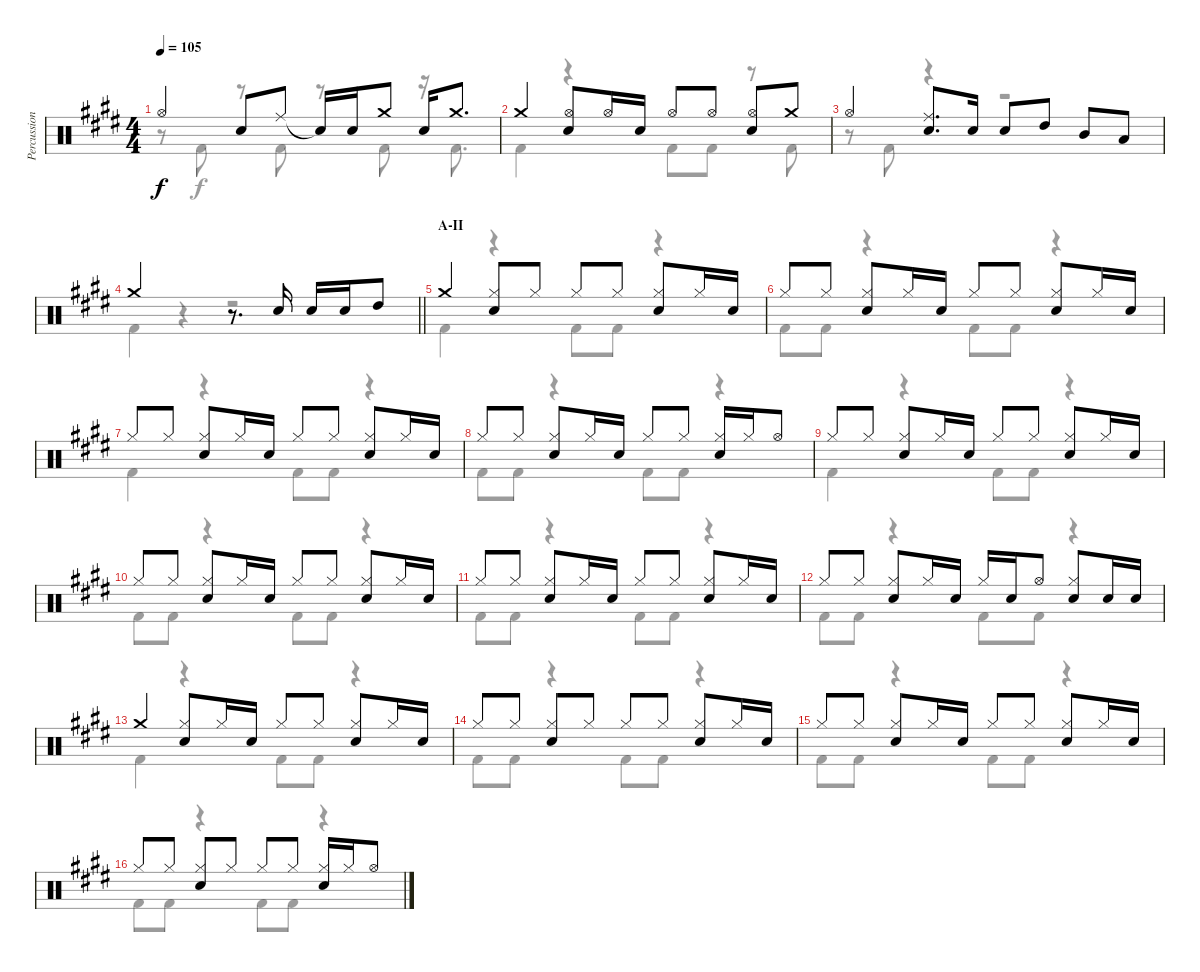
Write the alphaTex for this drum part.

\track ("Percussion" "Percussion") {instrument percussion}
\staff {score}
\articulation defaults
\voice
\ts (4 4)
\tempo 105
\clef neutral
\ks e "Hi-Hat (open)".4{dy f} "Snare (hit) 2".8 "Ride (middle)".8 "Snare (hit)"{t}.16 "Snare (hit) 2".16 "Crash medium (hit)".8 "Snare (hit) 2".16 "Crash medium (hit)".8{d}
|
"Crash medium (hit)".4 ("Hi-Hat (open)" "Snare (hit) 2").8 "Hi-Hat (open)".16 "Snare (hit) 2".16 "Hi-Hat (open)".8 "Hi-Hat (open)".8 ("Hi-Hat (open)" "Snare (hit) 2").8 "Crash medium (hit)".8 |
"Hi-Hat (open)".4 ("Ride (middle)" "Snare (hit) 2").8{d} "Snare (hit) 2".16 "Snare (hit) 2".8 "High Tom (hit)".8 "Mid Tom (hit)".8 "Low Tom (hit)".8 |
\barLineRight lightlight "Crash medium (hit)".2
r.8{d} "Snare (hit) 2".16 "Snare (hit) 2".16 "Snare (hit) 2".16 "High Tom (hit)".8 |
\section ("" "A-II")
"Crash medium (hit)".4 ("Hi-Hat (closed)" "Snare (hit) 2").8 "Hi-Hat (closed)".8 "Hi-Hat (closed)".8 "Hi-Hat (closed)".8 ("Hi-Hat (closed)" "Snare (hit) 2").8 "Hi-Hat (closed)".16 "Snare (hit) 2".16 |
"Hi-Hat (closed)".8 "Hi-Hat (closed)".8 ("Hi-Hat (closed)" "Snare (hit) 2").8 "Hi-Hat (closed)".16 "Snare (hit) 2".16 "Hi-Hat (closed)".8 "Hi-Hat (closed)".8 ("Hi-Hat (closed)" "Snare (hit) 2").8 "Hi-Hat (closed)".16 "Snare (hit) 2".16 |
"Hi-Hat (closed)".8 "Hi-Hat (closed)".8 ("Hi-Hat (closed)" "Snare (hit) 2").8 "Hi-Hat (closed)".16 "Snare (hit) 2".16 "Hi-Hat (closed)".8 "Hi-Hat (closed)".8 ("Hi-Hat (closed)" "Snare (hit) 2").8 "Hi-Hat (closed)".16 "Snare (hit) 2".16 |
"Hi-Hat (closed)".8 "Hi-Hat (closed)".8 ("Hi-Hat (closed)" "Snare (hit) 2").8 "Hi-Hat (closed)".16 "Snare (hit) 2".16 "Hi-Hat (closed)".8 "Hi-Hat (closed)".8 ("Hi-Hat (closed)" "Snare (hit) 2").16 "Hi-Hat (closed)".16 "Hi-Hat (open)".8 |
"Hi-Hat (closed)".8 "Hi-Hat (closed)".8 ("Hi-Hat (closed)" "Snare (hit) 2").8 "Hi-Hat (closed)".16 "Snare (hit) 2".16 "Hi-Hat (closed)".8 "Hi-Hat (closed)".8 ("Hi-Hat (closed)" "Snare (hit) 2").8 "Hi-Hat (closed)".16 "Snare (hit) 2".16 |
"Hi-Hat (closed)".8 "Hi-Hat (closed)".8 ("Hi-Hat (closed)" "Snare (hit) 2").8 "Hi-Hat (closed)".16 "Snare (hit) 2".16 "Hi-Hat (closed)".8 "Hi-Hat (closed)".8 ("Hi-Hat (closed)" "Snare (hit) 2").8 "Hi-Hat (closed)".16 "Snare (hit) 2".16 |
"Hi-Hat (closed)".8 "Hi-Hat (closed)".8 ("Hi-Hat (closed)" "Snare (hit) 2").8 "Hi-Hat (closed)".16 "Snare (hit) 2".16 "Hi-Hat (closed)".8 "Hi-Hat (closed)".8 ("Hi-Hat (closed)" "Snare (hit) 2").8 "Hi-Hat (closed)".16 "Snare (hit) 2".16 |
"Hi-Hat (closed)".8 "Hi-Hat (closed)".8 ("Hi-Hat (closed)" "Snare (hit) 2").8 "Hi-Hat (closed)".16 "Snare (hit) 2".16 "Hi-Hat (closed)".16 "Snare (hit) 2".16 "Hi-Hat (open)".8 ("Hi-Hat (closed)" "Snare (hit) 2").8 "Snare (hit) 2".16 "Snare (hit) 2".16 |
"Crash medium (hit)".4 ("Hi-Hat (closed)" "Snare (hit) 2").8 "Hi-Hat (closed)".16 "Snare (hit) 2".16 "Hi-Hat (closed)".8 "Hi-Hat (closed)".8 ("Hi-Hat (closed)" "Snare (hit) 2").8 "Hi-Hat (closed)".16 "Snare (hit) 2".16 |
"Hi-Hat (closed)".8 "Hi-Hat (closed)".8 ("Hi-Hat (closed)" "Snare (hit) 2").8 "Hi-Hat (closed)".8 "Hi-Hat (closed)".8 "Hi-Hat (closed)".8 ("Hi-Hat (closed)" "Snare (hit) 2").8 "Hi-Hat (closed)".16 "Snare (hit) 2".16 |
"Hi-Hat (closed)".8 "Hi-Hat (closed)".8 ("Hi-Hat (closed)" "Snare (hit) 2").8 "Hi-Hat (closed)".16 "Snare (hit) 2".16 "Hi-Hat (closed)".8 "Hi-Hat (closed)".8 ("Hi-Hat (closed)" "Snare (hit) 2").8 "Hi-Hat (closed)".16 "Snare (hit) 2".16 |
"Hi-Hat (closed)".8 "Hi-Hat (closed)".8 ("Hi-Hat (closed)" "Snare (hit) 2").8 "Hi-Hat (closed)".8 "Hi-Hat (closed)".8 "Hi-Hat (closed)".8 ("Hi-Hat (closed)" "Snare (hit) 2").16 "Hi-Hat (closed)".16 "Hi-Hat (open)".8
\voice
\clef neutral
\ottava regular
\simile none
\ks e
r.8{dy f} "Kick (hit) 2".8 r.8 "Kick (hit) 2".8 r.8 "Kick (hit) 2".8 r.16 "Kick (hit) 2".8{d} |
"Kick (hit) 2".4 r.4 "Kick (hit) 2".8 "Kick (hit) 2".8 r.8 "Kick (hit) 2".8 |
r.8 "Kick (hit) 2".8 r.4 r.2 |
\barLineRight lightlight "Kick (hit) 2".4
r.4 r.2 |
"Kick (hit) 2".4 r.4 "Kick (hit) 2".8 "Kick (hit) 2".8 r.4 |
"Kick (hit) 2".8 "Kick (hit) 2".8 r.4 "Kick (hit) 2".8 "Kick (hit) 2".8 r.4 |
"Kick (hit) 2".4 r.4 "Kick (hit) 2".8 "Kick (hit) 2".8 r.4 |
"Kick (hit) 2".8 "Kick (hit) 2".8 r.4 "Kick (hit) 2".8 "Kick (hit) 2".8 r.4 |
"Kick (hit) 2".4 r.4 "Kick (hit) 2".8 "Kick (hit) 2".8 r.4 |
"Kick (hit) 2".8 "Kick (hit) 2".8 r.4 "Kick (hit) 2".8 "Kick (hit) 2".8 r.4 |
"Kick (hit) 2".8 "Kick (hit) 2".8 r.4 "Kick (hit) 2".8 "Kick (hit) 2".8 r.4 |
"Kick (hit) 2".8 "Kick (hit) 2".8 r.4 "Kick (hit) 2".8 "Kick (hit) 2".8 r.4 |
"Kick (hit) 2".4 r.4 "Kick (hit) 2".8 "Kick (hit) 2".8 r.4 |
"Kick (hit) 2".8 "Kick (hit) 2".8 r.4 "Kick (hit) 2".8 "Kick (hit) 2".8 r.4 |
"Kick (hit) 2".8 "Kick (hit) 2".8 r.4 "Kick (hit) 2".8 "Kick (hit) 2".8 r.4 |
"Kick (hit) 2".8 "Kick (hit) 2".8 r.4 "Kick (hit) 2".8 "Kick (hit) 2".8 r.4
